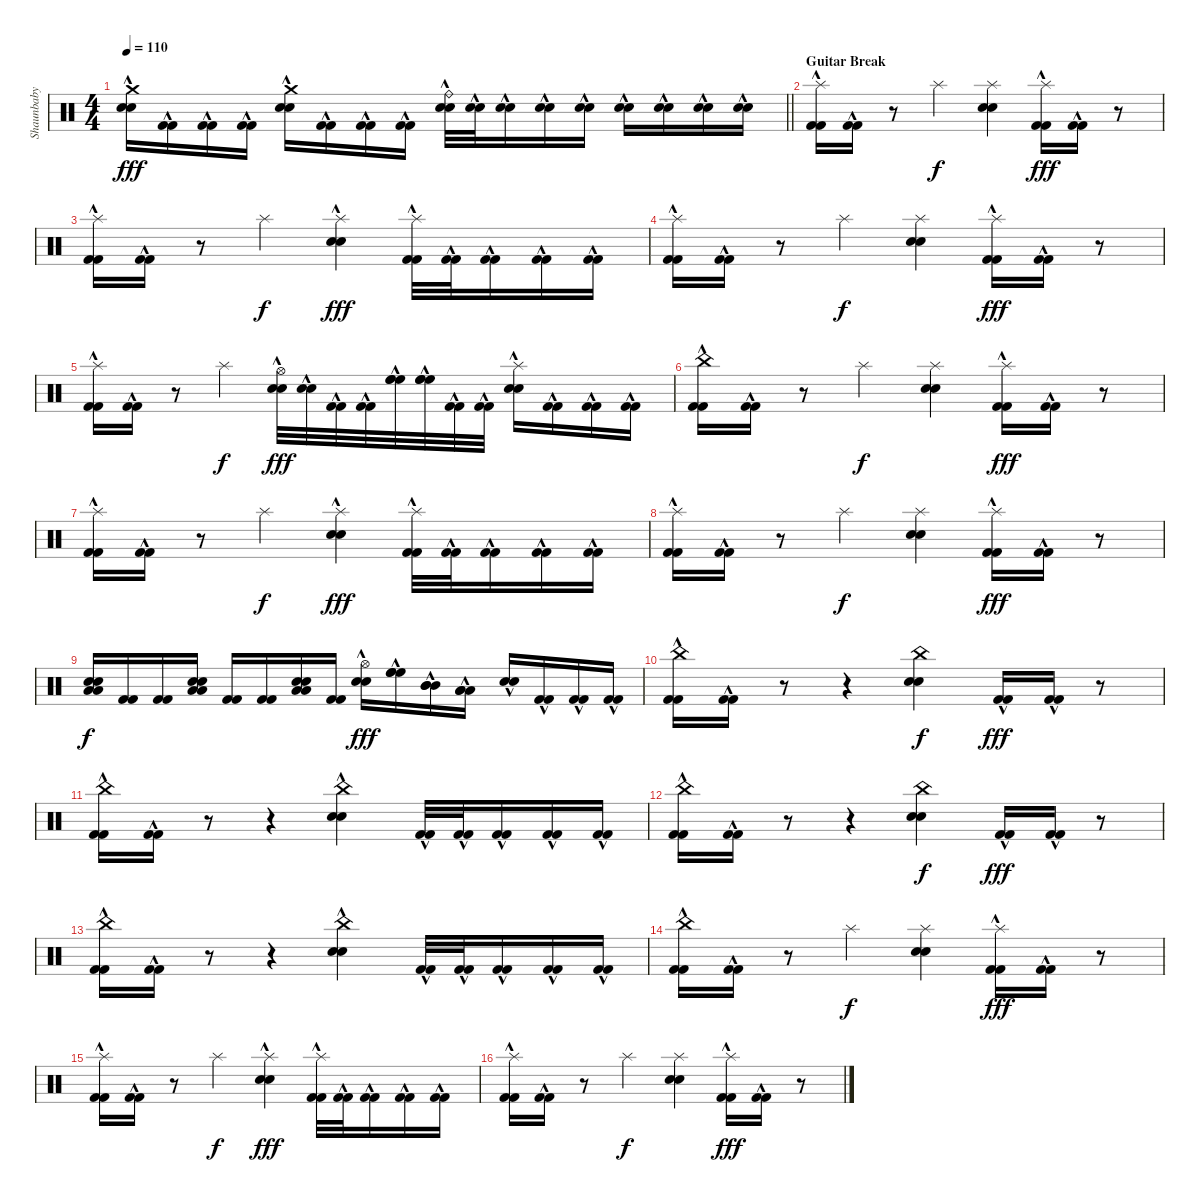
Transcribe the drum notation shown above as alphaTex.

\track ("Shaunbaby" "Shaunbaby") {instrument percussion}
\staff {score}
\articulation defaults
\ts (4 4)
\tempo 110
\clef neutral
\barLineRight lightlight
\ks c
("Crash medium (hit)" "Electric Snare (hit)"{hac} "Electric Snare (hit)"{hac}).16{dy fff} ("Kick (hit) 2"{hac} "Kick (hit) 2"{hac}).16 ("Kick (hit) 2"{hac} "Kick (hit) 2"{hac}).16 ("Kick (hit) 2"{hac} "Kick (hit) 2"{hac}).16 ("Crash medium (hit)" "Electric Snare (hit)"{hac} "Electric Snare (hit)"{hac}).16 ("Kick (hit) 2"{hac} "Kick (hit) 2"{hac}).16 ("Kick (hit) 2"{hac} "Kick (hit) 2"{hac}).16 ("Kick (hit) 2"{hac} "Kick (hit) 2"{hac}).16 ("Ride (bell)" "Electric Snare (hit)"{hac} "Electric Snare (hit)"{hac}).32 ("Electric Snare (hit)"{hac} "Electric Snare (hit)"{hac}).32 ("Electric Snare (hit)"{hac} "Electric Snare (hit)"{hac}).16 ("Electric Snare (hit)"{hac} "Electric Snare (hit)"{hac}).16 ("Electric Snare (hit)"{hac} "Electric Snare (hit)"{hac}).16 ("Electric Snare (hit)"{hac} "Electric Snare (hit)"{hac}).16 ("Electric Snare (hit)"{hac} "Electric Snare (hit)"{hac}).16 ("Electric Snare (hit)"{hac} "Electric Snare (hit)"{hac}).16 ("Electric Snare (hit)"{hac} "Electric Snare (hit)"{hac}).16 |
\section ("" "Guitar Break")
("Splash (hit)" "Kick (hit) 2"{hac} "Kick (hit) 2"{hac}).16 ("Kick (hit) 2"{hac} "Kick (hit) 2"{hac}).16 r.8 "Splash (hit)".4{dy f} ("Splash (hit)" "Electric Snare (hit)" "Electric Snare (hit)").4 ("Splash (hit)" "Kick (hit) 2"{hac} "Kick (hit) 2"{hac}).16{dy fff} ("Kick (hit) 2"{hac} "Kick (hit) 2"{hac}).16 r.8 |
("Splash (hit)" "Kick (hit) 2"{hac} "Kick (hit) 2"{hac}).16 ("Kick (hit) 2"{hac} "Kick (hit) 2"{hac}).16 r.8 "Splash (hit)".4{dy f} ("Splash (hit)" "Electric Snare (hit)"{hac} "Electric Snare (hit)"{hac}).4{dy fff} ("Splash (hit)" "Kick (hit) 2"{hac} "Kick (hit) 2"{hac}).32 ("Kick (hit) 2"{hac} "Kick (hit) 2"{hac}).32 ("Kick (hit) 2"{hac} "Kick (hit) 2"{hac}).16 ("Kick (hit) 2"{hac} "Kick (hit) 2"{hac}).16 ("Kick (hit) 2"{hac} "Kick (hit) 2"{hac}).16 |
("Splash (hit)" "Kick (hit) 2"{hac} "Kick (hit) 2"{hac}).16 ("Kick (hit) 2"{hac} "Kick (hit) 2"{hac}).16 r.8 "Splash (hit)".4{dy f} ("Splash (hit)" "Electric Snare (hit)" "Electric Snare (hit)").4 ("Splash (hit)" "Kick (hit) 2"{hac} "Kick (hit) 2"{hac}).16{dy fff} ("Kick (hit) 2"{hac} "Kick (hit) 2"{hac}).16 r.8 |
("Splash (hit)" "Kick (hit) 2"{hac} "Kick (hit) 2"{hac}).16 ("Kick (hit) 2"{hac} "Kick (hit) 2"{hac}).16 r.8 "Splash (hit)".4{dy f} ("Hi-Hat (open)" "Electric Snare (hit)"{hac} "Electric Snare (hit)"{hac}).32{dy fff} ("Electric Snare (hit)"{hac} "Electric Snare (hit)"{hac}).32 ("Kick (hit) 2"{hac} "Kick (hit) 2"{hac}).32 ("Kick (hit) 2"{hac} "Kick (hit) 2"{hac}).32 ("High Floor Tom (hit)"{hac} "High Floor Tom (hit)"{hac} "High Floor Tom (hit)"{hac}).32 ("High Floor Tom (hit)"{hac} "High Floor Tom (hit)"{hac} "High Floor Tom (hit)"{hac}).32 ("Kick (hit) 2"{hac} "Kick (hit) 2"{hac}).32 ("Kick (hit) 2"{hac} "Kick (hit) 2"{hac}).32 ("Splash (hit)" "Electric Snare (hit)"{hac} "Electric Snare (hit)"{hac}).16 ("Kick (hit) 2"{hac} "Kick (hit) 2"{hac}).16 ("Kick (hit) 2"{hac} "Kick (hit) 2"{hac}).16 ("Kick (hit) 2"{hac} "Kick (hit) 2"{hac}).16 |
("China (hit)" "Kick (hit) 2"{hac} "Kick (hit) 2"{hac}).16 ("Kick (hit) 2"{hac} "Kick (hit) 2"{hac}).16 r.8 "Splash (hit)".4{dy f} ("Splash (hit)" "Electric Snare (hit)" "Electric Snare (hit)").4 ("Splash (hit)" "Kick (hit) 2"{hac} "Kick (hit) 2"{hac}).16{dy fff} ("Kick (hit) 2"{hac} "Kick (hit) 2"{hac}).16 r.8 |
("Splash (hit)" "Kick (hit) 2"{hac} "Kick (hit) 2"{hac}).16 ("Kick (hit) 2"{hac} "Kick (hit) 2"{hac}).16 r.8 "Splash (hit)".4{dy f} ("Splash (hit)" "Electric Snare (hit)"{hac} "Electric Snare (hit)"{hac}).4{dy fff} ("Splash (hit)" "Kick (hit) 2"{hac} "Kick (hit) 2"{hac}).32 ("Kick (hit) 2"{hac} "Kick (hit) 2"{hac}).32 ("Kick (hit) 2"{hac} "Kick (hit) 2"{hac}).16 ("Kick (hit) 2"{hac} "Kick (hit) 2"{hac}).16 ("Kick (hit) 2"{hac} "Kick (hit) 2"{hac}).16 |
("Splash (hit)" "Kick (hit) 2"{hac} "Kick (hit) 2"{hac}).16 ("Kick (hit) 2"{hac} "Kick (hit) 2"{hac}).16 r.8 "Splash (hit)".4{dy f} ("Splash (hit)" "Electric Snare (hit)" "Electric Snare (hit)").4 ("Splash (hit)" "Kick (hit) 2"{hac} "Kick (hit) 2"{hac}).16{dy fff} ("Kick (hit) 2"{hac} "Kick (hit) 2"{hac}).16 r.8 |
("Low Floor Tom (hit)" "Low Floor Tom (hit)" "Electric Snare (hit)" "Electric Snare (hit)").16{dy f} ("Kick (hit) 2" "Kick (hit) 2").16 ("Kick (hit) 2" "Kick (hit) 2").16 ("Low Floor Tom (hit)" "Low Floor Tom (hit)" "Electric Snare (hit)" "Electric Snare (hit)").16 ("Kick (hit) 2" "Kick (hit) 2").16 ("Kick (hit) 2" "Kick (hit) 2").16 ("Low Floor Tom (hit)" "Low Floor Tom (hit)" "Electric Snare (hit)" "Electric Snare (hit)").16 ("Kick (hit) 2" "Kick (hit) 2").16 ("Hi-Hat (open)" "Electric Snare (hit)"{hac} "Electric Snare (hit)"{hac}).16{dy fff} ("High Floor Tom (hit)"{hac} "High Floor Tom (hit)"{hac} "High Floor Tom (hit)"{hac}).16 ("Mid Tom (hit)"{hac} "Mid Tom (hit)"{hac} "Mid Tom (hit)"{hac}).16 ("Low Floor Tom (hit)"{hac} "Low Floor Tom (hit)"{hac} "Low Floor Tom (hit)"{hac}).16 ("Electric Snare (hit)"{hac} "Electric Snare (hit)"{hac}).16 ("Kick (hit) 2"{hac} "Kick (hit) 2"{hac}).16 ("Kick (hit) 2"{hac} "Kick (hit) 2"{hac}).16 ("Kick (hit) 2"{hac} "Kick (hit) 2"{hac}).16 |
("China (hit)" "Kick (hit) 2"{hac} "Kick (hit) 2"{hac}).16 ("Kick (hit) 2"{hac} "Kick (hit) 2"{hac}).16 r.8 r.4 ("China (hit)" "Electric Snare (hit)" "Electric Snare (hit)").4{dy f} ("Kick (hit) 2"{hac} "Kick (hit) 2"{hac}).16{dy fff} ("Kick (hit) 2"{hac} "Kick (hit) 2"{hac}).16 r.8 |
("China (hit)" "Kick (hit) 2"{hac} "Kick (hit) 2"{hac}).16 ("Kick (hit) 2"{hac} "Kick (hit) 2"{hac}).16 r.8 r.4 ("China (hit)" "Electric Snare (hit)"{hac} "Electric Snare (hit)"{hac}).4 ("Kick (hit) 2"{hac} "Kick (hit) 2"{hac}).32 ("Kick (hit) 2"{hac} "Kick (hit) 2"{hac}).32 ("Kick (hit) 2"{hac} "Kick (hit) 2"{hac}).16 ("Kick (hit) 2"{hac} "Kick (hit) 2"{hac}).16 ("Kick (hit) 2"{hac} "Kick (hit) 2"{hac}).16 |
("China (hit)" "Kick (hit) 2"{hac} "Kick (hit) 2"{hac}).16 ("Kick (hit) 2"{hac} "Kick (hit) 2"{hac}).16 r.8 r.4 ("China (hit)" "Electric Snare (hit)" "Electric Snare (hit)").4{dy f} ("Kick (hit) 2"{hac} "Kick (hit) 2"{hac}).16{dy fff} ("Kick (hit) 2"{hac} "Kick (hit) 2"{hac}).16 r.8 |
("China (hit)" "Kick (hit) 2"{hac} "Kick (hit) 2"{hac}).16 ("Kick (hit) 2"{hac} "Kick (hit) 2"{hac}).16 r.8 r.4 ("China (hit)" "Electric Snare (hit)"{hac} "Electric Snare (hit)"{hac}).4 ("Kick (hit) 2"{hac} "Kick (hit) 2"{hac}).32 ("Kick (hit) 2"{hac} "Kick (hit) 2"{hac}).32 ("Kick (hit) 2"{hac} "Kick (hit) 2"{hac}).16 ("Kick (hit) 2"{hac} "Kick (hit) 2"{hac}).16 ("Kick (hit) 2"{hac} "Kick (hit) 2"{hac}).16 |
("China (hit)" "Kick (hit) 2"{hac} "Kick (hit) 2"{hac}).16 ("Kick (hit) 2"{hac} "Kick (hit) 2"{hac}).16 r.8 "Splash (hit)".4{dy f} ("Splash (hit)" "Electric Snare (hit)" "Electric Snare (hit)").4 ("Splash (hit)" "Kick (hit) 2"{hac} "Kick (hit) 2"{hac}).16{dy fff} ("Kick (hit) 2"{hac} "Kick (hit) 2"{hac}).16 r.8 |
("Splash (hit)" "Kick (hit) 2"{hac} "Kick (hit) 2"{hac}).16 ("Kick (hit) 2"{hac} "Kick (hit) 2"{hac}).16 r.8 "Splash (hit)".4{dy f} ("Splash (hit)" "Electric Snare (hit)"{hac} "Electric Snare (hit)"{hac}).4{dy fff} ("Splash (hit)" "Kick (hit) 2"{hac} "Kick (hit) 2"{hac}).32 ("Kick (hit) 2"{hac} "Kick (hit) 2"{hac}).32 ("Kick (hit) 2"{hac} "Kick (hit) 2"{hac}).16 ("Kick (hit) 2"{hac} "Kick (hit) 2"{hac}).16 ("Kick (hit) 2"{hac} "Kick (hit) 2"{hac}).16 |
("Splash (hit)" "Kick (hit) 2"{hac} "Kick (hit) 2"{hac}).16 ("Kick (hit) 2"{hac} "Kick (hit) 2"{hac}).16 r.8 "Splash (hit)".4{dy f} ("Splash (hit)" "Electric Snare (hit)" "Electric Snare (hit)").4 ("Splash (hit)" "Kick (hit) 2"{hac} "Kick (hit) 2"{hac}).16{dy fff} ("Kick (hit) 2"{hac} "Kick (hit) 2"{hac}).16 r.8
